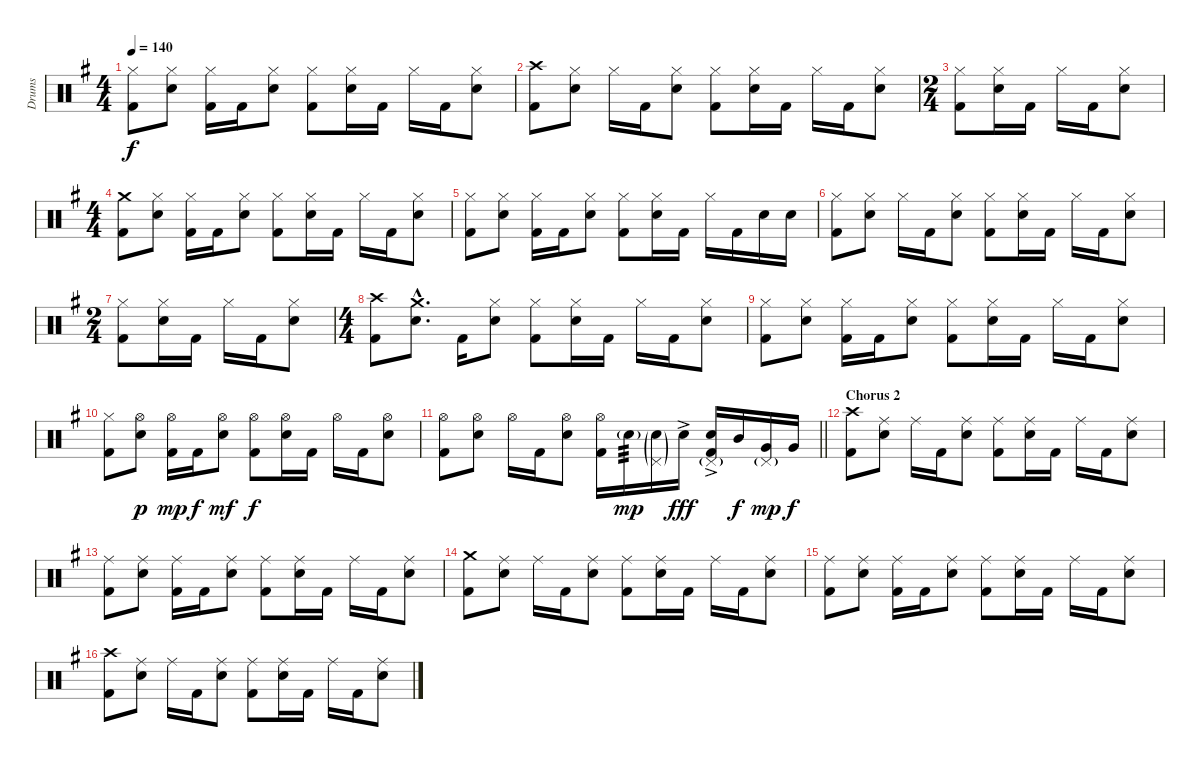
\track ("Drums" "Drums") {instrument percussion}
\staff {score}
\articulation defaults
\ts (4 4)
\tempo 140
\clef neutral
\ks g
("Hi-Hat (closed)" "Kick (hit) 2").8{dy f} ("Hi-Hat (closed)" "Electric Snare (hit)").8 ("Hi-Hat (closed)" "Kick (hit) 2").16 "Kick (hit) 2".16 ("Hi-Hat (closed)" "Electric Snare (hit)").8 ("Hi-Hat (closed)" "Kick (hit) 2").8 ("Hi-Hat (closed)" "Electric Snare (hit)").16 "Kick (hit) 2".16 "Hi-Hat (closed)".16 "Kick (hit) 2".16 ("Hi-Hat (closed)" "Electric Snare (hit)").8 |
("Crash high (hit)" "Kick (hit) 2").8 ("Hi-Hat (closed)" "Electric Snare (hit)").8 "Hi-Hat (closed)".16 "Kick (hit) 2".16 ("Hi-Hat (closed)" "Electric Snare (hit)").8 ("Hi-Hat (closed)" "Kick (hit) 2").8 ("Hi-Hat (closed)" "Electric Snare (hit)").16 "Kick (hit) 2".16 "Hi-Hat (closed)".16 "Kick (hit) 2".16 ("Hi-Hat (closed)" "Electric Snare (hit)").8 |
\ts (2 4)
("Hi-Hat (closed)" "Kick (hit) 2").8 ("Hi-Hat (closed)" "Electric Snare (hit)").16 "Kick (hit) 2".16 "Hi-Hat (closed)".16 "Kick (hit) 2".16 ("Hi-Hat (closed)" "Electric Snare (hit)").8 |
\ts (4 4)
("Crash medium (hit)" "Kick (hit) 2").8 ("Hi-Hat (closed)" "Electric Snare (hit)").8 ("Hi-Hat (closed)" "Kick (hit) 2").16 "Kick (hit) 2".16 ("Hi-Hat (closed)" "Electric Snare (hit)").8 ("Hi-Hat (closed)" "Kick (hit) 2").8 ("Hi-Hat (closed)" "Electric Snare (hit)").16 "Kick (hit) 2".16 "Hi-Hat (closed)".16 "Kick (hit) 2".16 ("Hi-Hat (closed)" "Electric Snare (hit)").8 |
("Hi-Hat (closed)" "Kick (hit) 2").8 ("Hi-Hat (closed)" "Electric Snare (hit)").8 ("Hi-Hat (closed)" "Kick (hit) 2").16 "Kick (hit) 2".16 ("Hi-Hat (closed)" "Electric Snare (hit)").8 ("Hi-Hat (closed)" "Kick (hit) 2").8 ("Hi-Hat (closed)" "Electric Snare (hit)").16 "Kick (hit) 2".16 "Hi-Hat (closed)".16 "Kick (hit) 2".16 "Electric Snare (hit)".16 "Electric Snare (hit)".16 |
("Hi-Hat (closed)" "Kick (hit) 2").8 ("Hi-Hat (closed)" "Electric Snare (hit)").8 "Hi-Hat (closed)".16 "Kick (hit) 2".16 ("Hi-Hat (closed)" "Electric Snare (hit)").8 ("Hi-Hat (closed)" "Kick (hit) 2").8 ("Hi-Hat (closed)" "Electric Snare (hit)").16 "Kick (hit) 2".16 "Hi-Hat (closed)".16 "Kick (hit) 2".16 ("Hi-Hat (closed)" "Electric Snare (hit)").8 |
\ts (2 4)
("Hi-Hat (closed)" "Kick (hit) 2").8 ("Hi-Hat (closed)" "Electric Snare (hit)").16 "Kick (hit) 2".16 "Hi-Hat (closed)".16 "Kick (hit) 2".16 ("Hi-Hat (closed)" "Electric Snare (hit)").8 |
\ts (4 4)
("Crash high (hit)" "Kick (hit) 2").8 ("Crash medium (hit)"{hac} "Electric Snare (hit)"{hac}).8{d} "Kick (hit) 2".16 ("Hi-Hat (closed)" "Electric Snare (hit)").8 ("Hi-Hat (closed)" "Kick (hit) 2").8 ("Hi-Hat (closed)" "Electric Snare (hit)").16 "Kick (hit) 2".16 "Hi-Hat (closed)".16 "Kick (hit) 2".16 ("Hi-Hat (closed)" "Electric Snare (hit)").8 |
("Hi-Hat (closed)" "Kick (hit) 2").8 ("Hi-Hat (closed)" "Electric Snare (hit)").8 ("Hi-Hat (closed)" "Kick (hit) 2").16 "Kick (hit) 2".16 ("Hi-Hat (closed)" "Electric Snare (hit)").8 ("Hi-Hat (closed)" "Kick (hit) 2").8 ("Hi-Hat (closed)" "Electric Snare (hit)").16 "Kick (hit) 2".16 "Hi-Hat (closed)".16 "Kick (hit) 2".16 ("Hi-Hat (closed)" "Electric Snare (hit)").8 |
("Hi-Hat (closed)" "Kick (hit) 2").8 ("Hi-Hat (open)" "Electric Snare (hit)").8{dy p} ("Hi-Hat (open)" "Kick (hit) 2").16{dy mp} "Kick (hit) 2".16{dy f} ("Hi-Hat (open)" "Electric Snare (hit)").8{dy mf} ("Hi-Hat (open)" "Kick (hit) 2").8{dy f} ("Hi-Hat (open)" "Electric Snare (hit)").16 "Kick (hit) 2".16 "Hi-Hat (open)".16 "Kick (hit) 2".16 ("Hi-Hat (open)" "Electric Snare (hit)").8 |
\barLineRight lightlight
("Hi-Hat (open)" "Kick (hit) 2").8 ("Hi-Hat (open)" "Electric Snare (hit)").8 "Hi-Hat (open)".16 "Kick (hit) 2".16 ("Hi-Hat (open)" "Electric Snare (hit)").8 ("Hi-Hat (open)" "Kick (hit) 2").16 "Electric Snare (hit)"{g}.16{tp 3 dy mp} ("Pedal Hi-Hat (hit)"{g} "Electric Snare (hit)"{g}).16 "Electric Snare (hit)"{ac}.16{dy fff} ("Pedal Hi-Hat (hit)"{g} "Electric Snare (hit)"{ac} "Kick (hit) 2").16 "Mid Tom (hit)".16{dy f} ("Pedal Hi-Hat (hit)"{g} "Very Low Tom (hit)").16{dy mp} "Very Low Tom (hit)".16{dy f} |
\section ("" "Chorus 2")
("Crash high (hit)" "Kick (hit) 2").8 ("Ride (middle)" "Electric Snare (hit)").8 "Ride (middle)".16 "Kick (hit) 2".16 ("Ride (middle)" "Electric Snare (hit)").8 ("Ride (middle)" "Kick (hit) 2").8 ("Ride (middle)" "Electric Snare (hit)").16 "Kick (hit) 2".16 "Ride (middle)".16 "Kick (hit) 2".16 ("Ride (middle)" "Electric Snare (hit)").8 |
("Ride (middle)" "Kick (hit) 2").8 ("Ride (middle)" "Electric Snare (hit)").8 ("Ride (middle)" "Kick (hit) 2").16 "Kick (hit) 2".16 ("Ride (middle)" "Electric Snare (hit)").8 ("Ride (middle)" "Kick (hit) 2").8 ("Ride (middle)" "Electric Snare (hit)").16 "Kick (hit) 2".16 "Ride (middle)".16 "Kick (hit) 2".16 ("Ride (middle)" "Electric Snare (hit)").8 |
("Crash medium (hit)" "Kick (hit) 2").8 ("Ride (middle)" "Electric Snare (hit)").8 "Ride (middle)".16 "Kick (hit) 2".16 ("Ride (middle)" "Electric Snare (hit)").8 ("Ride (middle)" "Kick (hit) 2").8 ("Ride (middle)" "Electric Snare (hit)").16 "Kick (hit) 2".16 "Ride (middle)".16 "Kick (hit) 2".16 ("Ride (middle)" "Electric Snare (hit)").8 |
("Ride (middle)" "Kick (hit) 2").8 ("Ride (middle)" "Electric Snare (hit)").8 ("Ride (middle)" "Kick (hit) 2").16 "Kick (hit) 2".16 ("Ride (middle)" "Electric Snare (hit)").8 ("Ride (middle)" "Kick (hit) 2").8 ("Ride (middle)" "Electric Snare (hit)").16 "Kick (hit) 2".16 "Ride (middle)".16 "Kick (hit) 2".16 ("Ride (middle)" "Electric Snare (hit)").8 |
("Crash high (hit)" "Kick (hit) 2").8 ("Ride (middle)" "Electric Snare (hit)").8 "Ride (middle)".16 "Kick (hit) 2".16 ("Ride (middle)" "Electric Snare (hit)").8 ("Ride (middle)" "Kick (hit) 2").8 ("Ride (middle)" "Electric Snare (hit)").16 "Kick (hit) 2".16 "Ride (middle)".16 "Kick (hit) 2".16 ("Ride (middle)" "Electric Snare (hit)").8
